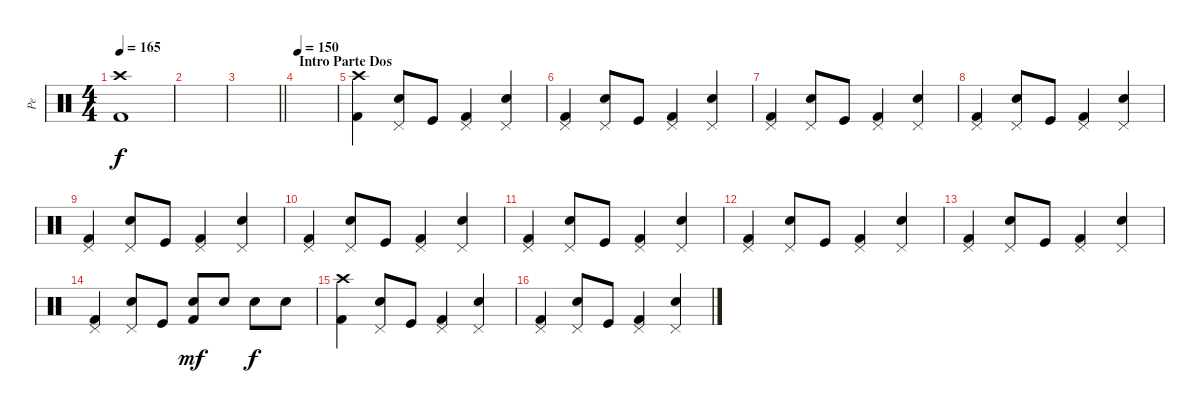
\track ("Pe" "Pe") {instrument percussion}
\staff {score}
\articulation defaults
\ts (4 4)
\tempo 165
\clef neutral
\ks c
("Kick (hit) 2" "Crash high (hit)").1{dy f} |
|
\barLineRight lightlight
|
\section ("" "Intro Parte Dos")
\tempo 150
|
("Kick (hit) 2" "Crash high (hit)").4 ("Electric Snare (hit)" "Pedal Hi-Hat (hit)").8 "Kick (hit)".8 ("Kick (hit) 2" "Pedal Hi-Hat (hit)").4 ("Electric Snare (hit)" "Pedal Hi-Hat (hit)").4 |
("Kick (hit) 2" "Pedal Hi-Hat (hit)").4 ("Electric Snare (hit)" "Pedal Hi-Hat (hit)").8 "Kick (hit)".8 ("Kick (hit) 2" "Pedal Hi-Hat (hit)").4 ("Electric Snare (hit)" "Pedal Hi-Hat (hit)").4 |
("Kick (hit) 2" "Pedal Hi-Hat (hit)").4 ("Electric Snare (hit)" "Pedal Hi-Hat (hit)").8 "Kick (hit)".8 ("Kick (hit) 2" "Pedal Hi-Hat (hit)").4 ("Electric Snare (hit)" "Pedal Hi-Hat (hit)").4 |
("Kick (hit) 2" "Pedal Hi-Hat (hit)").4 ("Electric Snare (hit)" "Pedal Hi-Hat (hit)").8 "Kick (hit)".8 ("Kick (hit) 2" "Pedal Hi-Hat (hit)").4 ("Electric Snare (hit)" "Pedal Hi-Hat (hit)").4 |
("Kick (hit) 2" "Pedal Hi-Hat (hit)").4 ("Electric Snare (hit)" "Pedal Hi-Hat (hit)").8 "Kick (hit)".8 ("Kick (hit) 2" "Pedal Hi-Hat (hit)").4 ("Electric Snare (hit)" "Pedal Hi-Hat (hit)").4 |
("Kick (hit) 2" "Pedal Hi-Hat (hit)").4 ("Electric Snare (hit)" "Pedal Hi-Hat (hit)").8 "Kick (hit)".8 ("Kick (hit) 2" "Pedal Hi-Hat (hit)").4 ("Electric Snare (hit)" "Pedal Hi-Hat (hit)").4 |
("Kick (hit) 2" "Pedal Hi-Hat (hit)").4 ("Electric Snare (hit)" "Pedal Hi-Hat (hit)").8 "Kick (hit)".8 ("Kick (hit) 2" "Pedal Hi-Hat (hit)").4 ("Electric Snare (hit)" "Pedal Hi-Hat (hit)").4 |
("Kick (hit) 2" "Pedal Hi-Hat (hit)").4 ("Electric Snare (hit)" "Pedal Hi-Hat (hit)").8 "Kick (hit)".8 ("Kick (hit) 2" "Pedal Hi-Hat (hit)").4 ("Electric Snare (hit)" "Pedal Hi-Hat (hit)").4 |
("Kick (hit) 2" "Pedal Hi-Hat (hit)").4 ("Electric Snare (hit)" "Pedal Hi-Hat (hit)").8 "Kick (hit)".8 ("Kick (hit) 2" "Pedal Hi-Hat (hit)").4 ("Electric Snare (hit)" "Pedal Hi-Hat (hit)").4 |
("Kick (hit) 2" "Pedal Hi-Hat (hit)").4 ("Electric Snare (hit)" "Pedal Hi-Hat (hit)").8 "Kick (hit)".8 ("Kick (hit) 2" "Electric Snare (hit)").8{dy mf} "Electric Snare (hit)".8 "Electric Snare (hit)".8{dy f} "Electric Snare (hit)".8 |
("Kick (hit) 2" "Crash high (hit)").4 ("Electric Snare (hit)" "Pedal Hi-Hat (hit)").8 "Kick (hit)".8 ("Kick (hit) 2" "Pedal Hi-Hat (hit)").4 ("Electric Snare (hit)" "Pedal Hi-Hat (hit)").4 |
("Kick (hit) 2" "Pedal Hi-Hat (hit)").4 ("Electric Snare (hit)" "Pedal Hi-Hat (hit)").8 "Kick (hit)".8 ("Kick (hit) 2" "Pedal Hi-Hat (hit)").4 ("Electric Snare (hit)" "Pedal Hi-Hat (hit)").4
